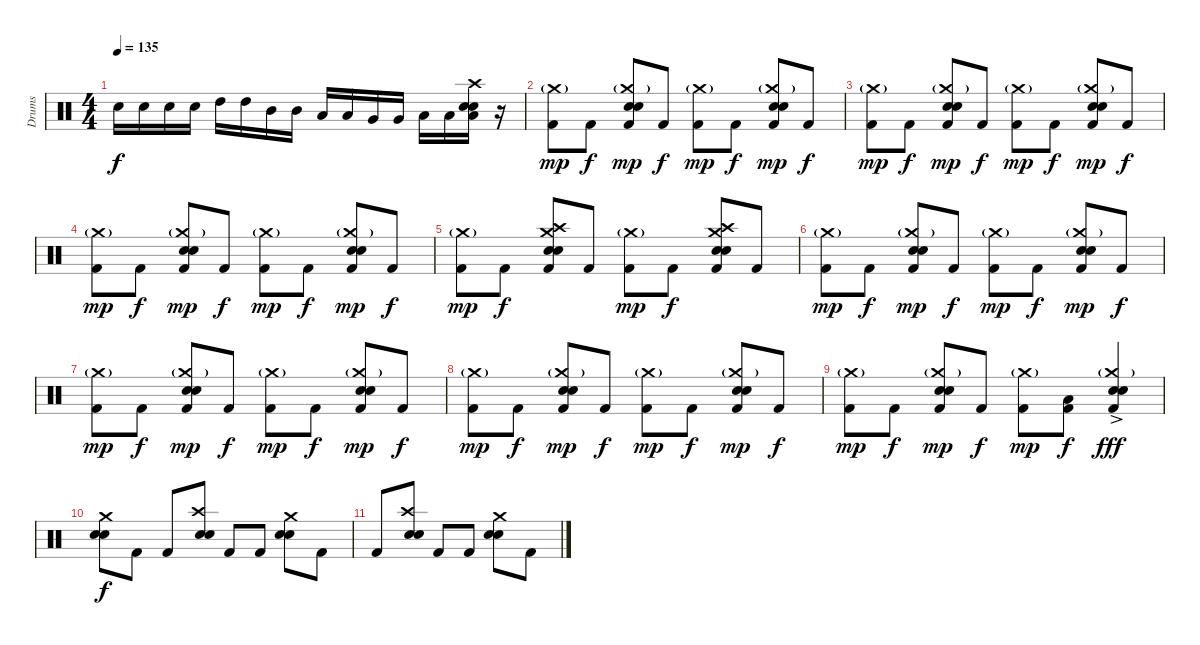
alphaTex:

\track ("Drums" "Drums") {instrument percussion}
\staff {score}
\articulation defaults
\ts (4 4)
\tempo 135
\clef neutral
\ks c "Electric Snare (hit)".16{dy f} "Electric Snare (hit)".16 "Electric Snare (hit)".16 "Electric Snare (hit)".16 "High Tom (hit)".16 "High Tom (hit)".16 "Mid Tom (hit)".16 "Mid Tom (hit)".16 "Low Tom (hit)".16 "Low Tom (hit)".16 "Very Low Tom (hit)".16 "Very Low Tom (hit)".16 "Low Floor Tom (hit)".16 "Low Floor Tom (hit)".16
("Crash high (hit)" "Electric Snare (hit)" "Snare (hit) 2" "Low Floor Tom (hit)").16 r.16 |
("Crash medium (hit)"{g} "Kick (hit) 2").8{dy mp} "Kick (hit) 2".8{dy f} ("Crash medium (hit)"{g} "Snare (hit) 2" "Electric Snare (hit)" "Kick (hit) 2").8{dy mp} "Kick (hit) 2".8{dy f} ("Crash medium (hit)"{g} "Kick (hit) 2").8{dy mp} "Kick (hit) 2".8{dy f} ("Crash medium (hit)"{g} "Snare (hit) 2" "Electric Snare (hit)" "Kick (hit) 2").8{dy mp} "Kick (hit) 2".8{dy f} |
("Crash medium (hit)"{g} "Kick (hit) 2").8{dy mp} "Kick (hit) 2".8{dy f} ("Crash medium (hit)"{g} "Electric Snare (hit)" "Snare (hit) 2" "Kick (hit) 2").8{dy mp} "Kick (hit) 2".8{dy f} ("Crash medium (hit)"{g} "Kick (hit) 2").8{dy mp} "Kick (hit) 2".8{dy f} ("Crash medium (hit)"{g} "Snare (hit) 2" "Electric Snare (hit)" "Kick (hit) 2").8{dy mp} "Kick (hit) 2".8{dy f} |
("Crash medium (hit)"{g} "Kick (hit) 2").8{dy mp} "Kick (hit) 2".8{dy f} ("Crash medium (hit)"{g} "Snare (hit) 2" "Electric Snare (hit)" "Kick (hit) 2").8{dy mp} "Kick (hit) 2".8{dy f} ("Crash medium (hit)"{g} "Kick (hit) 2").8{dy mp} "Kick (hit) 2".8{dy f} ("Crash medium (hit)"{g} "Snare (hit) 2" "Electric Snare (hit)" "Kick (hit) 2").8{dy mp} "Kick (hit) 2".8{dy f} |
("Crash medium (hit)"{g} "Kick (hit) 2").8{dy mp} "Kick (hit) 2".8{dy f} ("Crash high (hit)" "Crash medium (hit)" "Electric Snare (hit)" "Snare (hit) 2" "Kick (hit) 2").8 "Kick (hit) 2".8 ("Crash medium (hit)"{g} "Kick (hit) 2").8{dy mp} "Kick (hit) 2".8{dy f} ("Crash high (hit)" "Crash medium (hit)" "Electric Snare (hit)" "Snare (hit) 2" "Kick (hit) 2").8 "Kick (hit) 2".8 |
("Crash medium (hit)"{g} "Kick (hit) 2").8{dy mp} "Kick (hit) 2".8{dy f} ("Crash medium (hit)"{g} "Snare (hit) 2" "Electric Snare (hit)" "Kick (hit) 2").8{dy mp} "Kick (hit) 2".8{dy f} ("Crash medium (hit)"{g} "Kick (hit) 2").8{dy mp} "Kick (hit) 2".8{dy f} ("Crash medium (hit)"{g} "Snare (hit) 2" "Electric Snare (hit)" "Kick (hit) 2").8{dy mp} "Kick (hit) 2".8{dy f} |
("Crash medium (hit)"{g} "Kick (hit) 2").8{dy mp} "Kick (hit) 2".8{dy f} ("Crash medium (hit)"{g} "Electric Snare (hit)" "Snare (hit) 2" "Kick (hit) 2").8{dy mp} "Kick (hit) 2".8{dy f} ("Crash medium (hit)"{g} "Kick (hit) 2").8{dy mp} "Kick (hit) 2".8{dy f} ("Crash medium (hit)"{g} "Snare (hit) 2" "Electric Snare (hit)" "Kick (hit) 2").8{dy mp} "Kick (hit) 2".8{dy f} |
("Crash medium (hit)"{g} "Kick (hit) 2").8{dy mp} "Kick (hit) 2".8{dy f} ("Crash medium (hit)"{g} "Snare (hit) 2" "Electric Snare (hit)" "Kick (hit) 2").8{dy mp} "Kick (hit) 2".8{dy f} ("Crash medium (hit)"{g} "Kick (hit) 2").8{dy mp} "Kick (hit) 2".8{dy f} ("Crash medium (hit)"{g} "Snare (hit) 2" "Electric Snare (hit)" "Kick (hit) 2").8{dy mp} "Kick (hit) 2".8{dy f} |
("Crash medium (hit)"{g} "Kick (hit) 2").8{dy mp} "Kick (hit) 2".8{dy f} ("Crash medium (hit)"{g} "Electric Snare (hit)" "Snare (hit) 2" "Kick (hit) 2").8{dy mp} "Kick (hit) 2".8{dy f} ("Crash medium (hit)"{g} "Kick (hit) 2").8{dy mp} ("Low Floor Tom (hit)" "Kick (hit) 2").8{dy f} ("Crash medium (hit)"{g} "Electric Snare (hit)" "Snare (hit) 2" "Kick (hit) 2"{ac}).4{dy fff} |
("Crash medium (hit)" "Electric Snare (hit)" "Snare (hit) 2").8{dy f} "Kick (hit) 2".8 "Kick (hit) 2".8 ("Crash high (hit)" "Electric Snare (hit)" "Snare (hit) 2").8 "Kick (hit) 2".8 "Kick (hit) 2".8 ("Crash medium (hit)" "Electric Snare (hit)" "Snare (hit) 2").8 "Kick (hit) 2".8 |
"Kick (hit) 2".8 ("Crash high (hit)" "Electric Snare (hit)" "Snare (hit) 2").8 "Kick (hit) 2".8 "Kick (hit) 2".8 ("Crash medium (hit)" "Electric Snare (hit)" "Snare (hit) 2").8 "Kick (hit) 2".8
